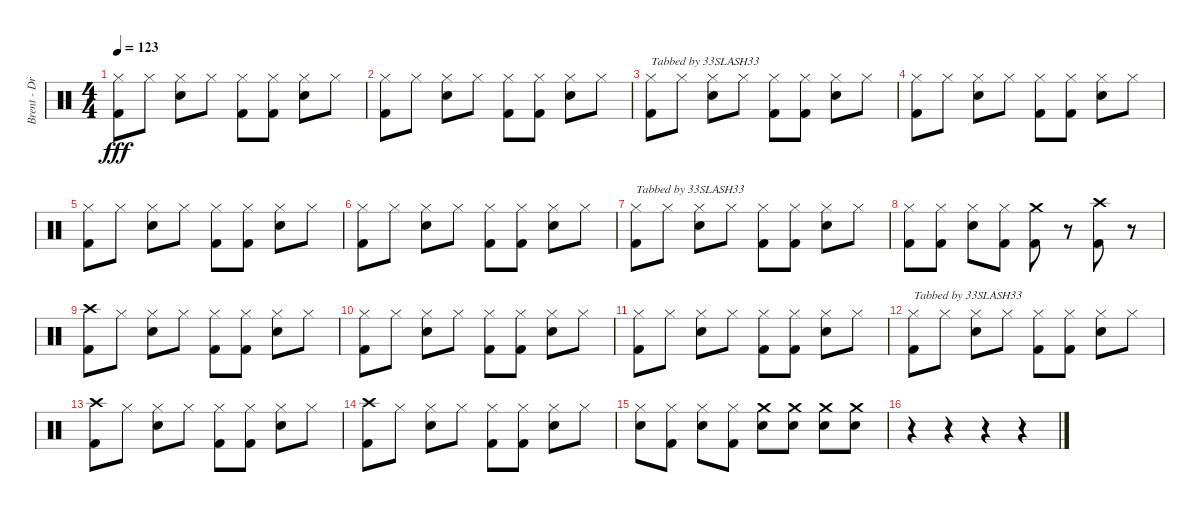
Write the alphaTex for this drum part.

\track ("Brent - Drums" "Brent - Dr") {instrument percussion}
\staff {score}
\articulation defaults
\ts (4 4)
\tempo 123
\clef neutral
\ks c
("Hi-Hat (closed)" "Kick (hit) 2").8{dy fff} "Hi-Hat (closed)".8 ("Hi-Hat (closed)" "Snare (hit) 2").8 "Hi-Hat (closed)".8 ("Hi-Hat (closed)" "Kick (hit) 2").8 ("Hi-Hat (closed)" "Kick (hit) 2").8 ("Hi-Hat (closed)" "Snare (hit) 2").8 "Hi-Hat (closed)".8 |
("Hi-Hat (closed)" "Kick (hit) 2").8 "Hi-Hat (closed)".8 ("Hi-Hat (closed)" "Snare (hit) 2").8 "Hi-Hat (closed)".8 ("Hi-Hat (closed)" "Kick (hit) 2").8 ("Hi-Hat (closed)" "Kick (hit) 2").8 ("Hi-Hat (closed)" "Snare (hit) 2").8 "Hi-Hat (closed)".8 |
("Hi-Hat (closed)" "Kick (hit) 2").8{txt "Tabbed by 33SLASH33"} "Hi-Hat (closed)".8 ("Hi-Hat (closed)" "Snare (hit) 2").8 "Hi-Hat (closed)".8 ("Hi-Hat (closed)" "Kick (hit) 2").8 ("Hi-Hat (closed)" "Kick (hit) 2").8 ("Hi-Hat (closed)" "Snare (hit) 2").8 "Hi-Hat (closed)".8 |
("Hi-Hat (closed)" "Kick (hit) 2").8 "Hi-Hat (closed)".8 ("Hi-Hat (closed)" "Snare (hit) 2").8 "Hi-Hat (closed)".8 ("Hi-Hat (closed)" "Kick (hit) 2").8 ("Hi-Hat (closed)" "Kick (hit) 2").8 ("Hi-Hat (closed)" "Snare (hit) 2").8 "Hi-Hat (closed)".8 |
("Hi-Hat (closed)" "Kick (hit) 2").8 "Hi-Hat (closed)".8 ("Hi-Hat (closed)" "Snare (hit) 2").8 "Hi-Hat (closed)".8 ("Hi-Hat (closed)" "Kick (hit) 2").8 ("Hi-Hat (closed)" "Kick (hit) 2").8 ("Hi-Hat (closed)" "Snare (hit) 2").8 "Hi-Hat (closed)".8 |
("Hi-Hat (closed)" "Kick (hit) 2").8 "Hi-Hat (closed)".8 ("Hi-Hat (closed)" "Snare (hit) 2").8 "Hi-Hat (closed)".8 ("Hi-Hat (closed)" "Kick (hit) 2").8 ("Hi-Hat (closed)" "Kick (hit) 2").8 ("Hi-Hat (closed)" "Snare (hit) 2").8 "Hi-Hat (closed)".8 |
("Hi-Hat (closed)" "Kick (hit) 2").8{txt "Tabbed by 33SLASH33"} "Hi-Hat (closed)".8 ("Hi-Hat (closed)" "Snare (hit) 2").8 "Hi-Hat (closed)".8 ("Hi-Hat (closed)" "Kick (hit) 2").8 ("Hi-Hat (closed)" "Kick (hit) 2").8 ("Hi-Hat (closed)" "Snare (hit) 2").8 "Hi-Hat (closed)".8 |
("Hi-Hat (closed)" "Kick (hit) 2").8 ("Hi-Hat (closed)" "Kick (hit) 2").8 ("Hi-Hat (closed)" "Snare (hit) 2").8 ("Hi-Hat (closed)" "Kick (hit) 2").8 ("Crash medium (hit)" "Kick (hit) 2").8 r.8 ("Crash high (hit)" "Kick (hit) 2").8 r.8 |
("Crash high (hit)" "Kick (hit) 2").8 "Hi-Hat (closed)".8 ("Hi-Hat (closed)" "Snare (hit) 2").8 "Hi-Hat (closed)".8 ("Hi-Hat (closed)" "Kick (hit) 2").8 ("Hi-Hat (closed)" "Kick (hit) 2").8 ("Hi-Hat (closed)" "Snare (hit) 2").8 "Hi-Hat (closed)".8 |
("Hi-Hat (closed)" "Kick (hit) 2").8 "Hi-Hat (closed)".8 ("Hi-Hat (closed)" "Snare (hit) 2").8 "Hi-Hat (closed)".8 ("Hi-Hat (closed)" "Kick (hit) 2").8 ("Hi-Hat (closed)" "Kick (hit) 2").8 ("Hi-Hat (closed)" "Snare (hit) 2").8 "Hi-Hat (closed)".8 |
("Hi-Hat (closed)" "Kick (hit) 2").8 "Hi-Hat (closed)".8 ("Hi-Hat (closed)" "Snare (hit) 2").8 "Hi-Hat (closed)".8 ("Hi-Hat (closed)" "Kick (hit) 2").8 ("Hi-Hat (closed)" "Kick (hit) 2").8 ("Hi-Hat (closed)" "Snare (hit) 2").8 "Hi-Hat (closed)".8 |
("Hi-Hat (closed)" "Kick (hit) 2").8{txt "Tabbed by 33SLASH33"} "Hi-Hat (closed)".8 ("Hi-Hat (closed)" "Snare (hit) 2").8 "Hi-Hat (closed)".8 ("Hi-Hat (closed)" "Kick (hit) 2").8 ("Hi-Hat (closed)" "Kick (hit) 2").8 ("Hi-Hat (closed)" "Snare (hit) 2").8 "Hi-Hat (closed)".8 |
("Crash high (hit)" "Kick (hit) 2").8 "Hi-Hat (closed)".8 ("Hi-Hat (closed)" "Snare (hit) 2").8 "Hi-Hat (closed)".8 ("Hi-Hat (closed)" "Kick (hit) 2").8 ("Hi-Hat (closed)" "Kick (hit) 2").8 ("Hi-Hat (closed)" "Snare (hit) 2").8 "Hi-Hat (closed)".8 |
("Crash high (hit)" "Kick (hit) 2").8 "Hi-Hat (closed)".8 ("Hi-Hat (closed)" "Snare (hit) 2").8 "Hi-Hat (closed)".8 ("Hi-Hat (closed)" "Kick (hit) 2").8 ("Hi-Hat (closed)" "Kick (hit) 2").8 ("Hi-Hat (closed)" "Snare (hit) 2").8 "Hi-Hat (closed)".8 |
("Hi-Hat (closed)" "Snare (hit) 2").8 ("Hi-Hat (closed)" "Kick (hit) 2").8 ("Hi-Hat (closed)" "Snare (hit) 2").8 ("Hi-Hat (closed)" "Kick (hit) 2").8 ("Crash medium (hit)" "Snare (hit) 2").8 ("Crash medium (hit)" "Snare (hit) 2").8 ("Crash medium (hit)" "Snare (hit) 2").8 ("Crash medium (hit)" "Snare (hit) 2").8 |
r.4 r.4 r.4 r.4
